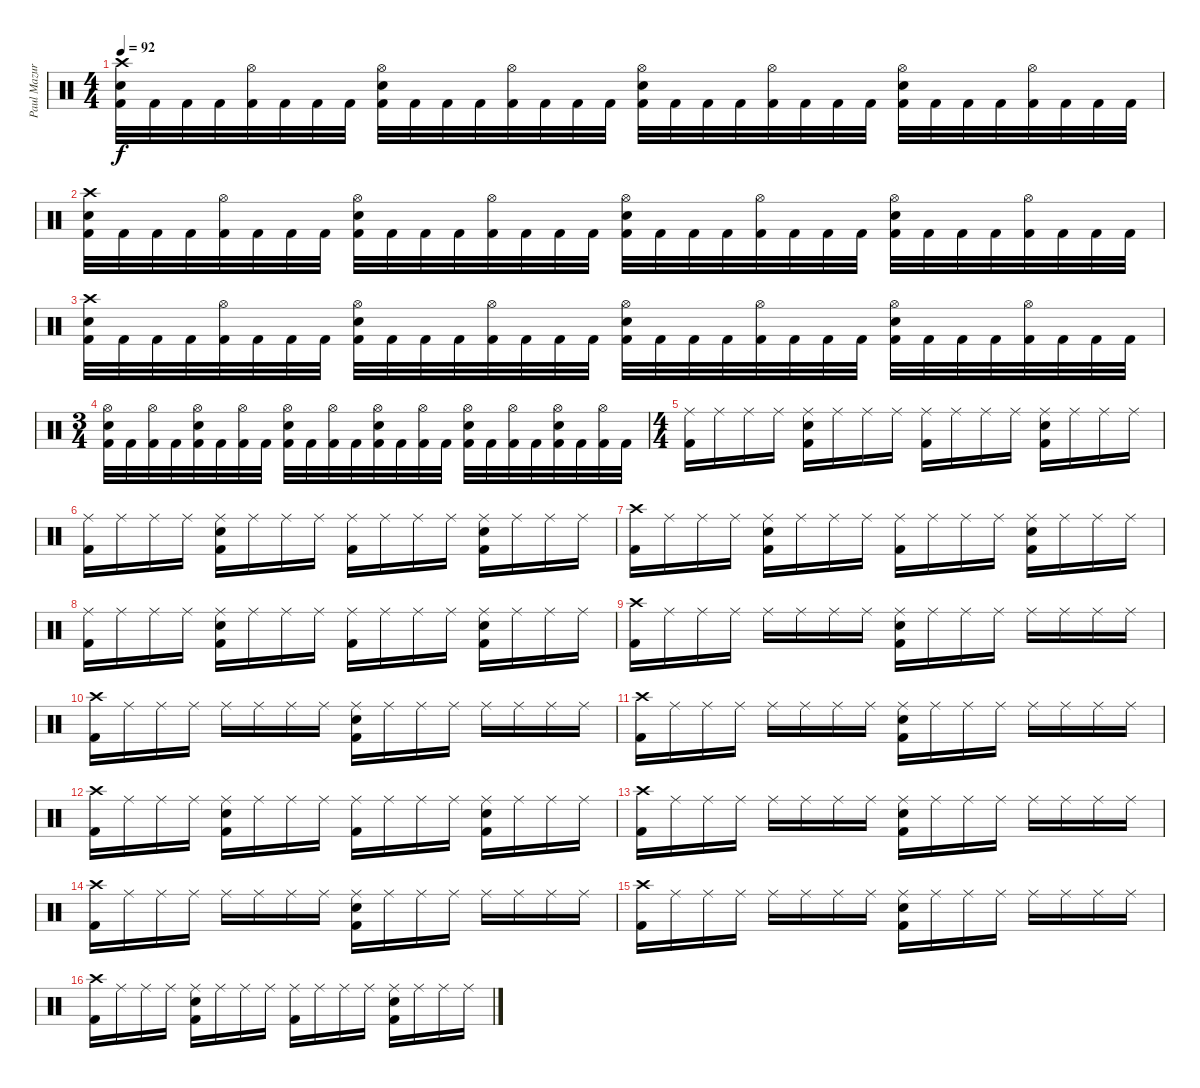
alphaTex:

\track ("Paul Mazurkiewicz" "Paul Mazur") {instrument percussion}
\staff {score}
\articulation defaults
\ts (4 4)
\tempo 92
\clef neutral
\ks c
("Crash high (hit)" "Electric Snare (hit)" "Kick (hit) 2").32{dy f} "Kick (hit) 2".32 "Kick (hit) 2".32 "Kick (hit) 2".32 ("Hi-Hat (open)" "Kick (hit) 2").32 "Kick (hit) 2".32 "Kick (hit) 2".32 "Kick (hit) 2".32 ("Hi-Hat (open)" "Electric Snare (hit)" "Kick (hit) 2").32 "Kick (hit) 2".32 "Kick (hit) 2".32 "Kick (hit) 2".32 ("Hi-Hat (open)" "Kick (hit) 2").32 "Kick (hit) 2".32 "Kick (hit) 2".32 "Kick (hit) 2".32 ("Hi-Hat (open)" "Electric Snare (hit)" "Kick (hit) 2").32 "Kick (hit) 2".32 "Kick (hit) 2".32 "Kick (hit) 2".32 ("Hi-Hat (open)" "Kick (hit) 2").32 "Kick (hit) 2".32 "Kick (hit) 2".32 "Kick (hit) 2".32 ("Hi-Hat (open)" "Electric Snare (hit)" "Kick (hit) 2").32 "Kick (hit) 2".32 "Kick (hit) 2".32 "Kick (hit) 2".32 ("Hi-Hat (open)" "Kick (hit) 2").32 "Kick (hit) 2".32 "Kick (hit) 2".32 "Kick (hit) 2".32 |
("Crash high (hit)" "Electric Snare (hit)" "Kick (hit) 2").32 "Kick (hit) 2".32 "Kick (hit) 2".32 "Kick (hit) 2".32 ("Hi-Hat (open)" "Kick (hit) 2").32 "Kick (hit) 2".32 "Kick (hit) 2".32 "Kick (hit) 2".32 ("Hi-Hat (open)" "Electric Snare (hit)" "Kick (hit) 2").32 "Kick (hit) 2".32 "Kick (hit) 2".32 "Kick (hit) 2".32 ("Hi-Hat (open)" "Kick (hit) 2").32 "Kick (hit) 2".32 "Kick (hit) 2".32 "Kick (hit) 2".32 ("Hi-Hat (open)" "Electric Snare (hit)" "Kick (hit) 2").32 "Kick (hit) 2".32 "Kick (hit) 2".32 "Kick (hit) 2".32 ("Hi-Hat (open)" "Kick (hit) 2").32 "Kick (hit) 2".32 "Kick (hit) 2".32 "Kick (hit) 2".32 ("Hi-Hat (open)" "Electric Snare (hit)" "Kick (hit) 2").32 "Kick (hit) 2".32 "Kick (hit) 2".32 "Kick (hit) 2".32 ("Hi-Hat (open)" "Kick (hit) 2").32 "Kick (hit) 2".32 "Kick (hit) 2".32 "Kick (hit) 2".32 |
("Crash high (hit)" "Electric Snare (hit)" "Kick (hit) 2").32 "Kick (hit) 2".32 "Kick (hit) 2".32 "Kick (hit) 2".32 ("Hi-Hat (open)" "Kick (hit) 2").32 "Kick (hit) 2".32 "Kick (hit) 2".32 "Kick (hit) 2".32 ("Hi-Hat (open)" "Electric Snare (hit)" "Kick (hit) 2").32 "Kick (hit) 2".32 "Kick (hit) 2".32 "Kick (hit) 2".32 ("Hi-Hat (open)" "Kick (hit) 2").32 "Kick (hit) 2".32 "Kick (hit) 2".32 "Kick (hit) 2".32 ("Hi-Hat (open)" "Electric Snare (hit)" "Kick (hit) 2").32 "Kick (hit) 2".32 "Kick (hit) 2".32 "Kick (hit) 2".32 ("Hi-Hat (open)" "Kick (hit) 2").32 "Kick (hit) 2".32 "Kick (hit) 2".32 "Kick (hit) 2".32 ("Hi-Hat (open)" "Electric Snare (hit)" "Kick (hit) 2").32 "Kick (hit) 2".32 "Kick (hit) 2".32 "Kick (hit) 2".32 ("Hi-Hat (open)" "Kick (hit) 2").32 "Kick (hit) 2".32 "Kick (hit) 2".32 "Kick (hit) 2".32 |
\ts (3 4)
("Hi-Hat (open)" "Electric Snare (hit)" "Kick (hit) 2").32 "Kick (hit) 2".32 ("Hi-Hat (open)" "Kick (hit) 2").32 "Kick (hit) 2".32 ("Hi-Hat (open)" "Electric Snare (hit)" "Kick (hit) 2").32 "Kick (hit) 2".32 ("Hi-Hat (open)" "Kick (hit) 2").32 "Kick (hit) 2".32 ("Hi-Hat (open)" "Electric Snare (hit)" "Kick (hit) 2").32 "Kick (hit) 2".32 ("Hi-Hat (open)" "Kick (hit) 2").32 "Kick (hit) 2".32 ("Hi-Hat (open)" "Electric Snare (hit)" "Kick (hit) 2").32 "Kick (hit) 2".32 ("Hi-Hat (open)" "Kick (hit) 2").32 "Kick (hit) 2".32 ("Hi-Hat (open)" "Electric Snare (hit)" "Kick (hit) 2").32 "Kick (hit) 2".32 ("Hi-Hat (open)" "Kick (hit) 2").32 "Kick (hit) 2".32 ("Hi-Hat (open)" "Electric Snare (hit)" "Kick (hit) 2").32 "Kick (hit) 2".32 ("Hi-Hat (open)" "Kick (hit) 2").32 "Kick (hit) 2".32 |
\ts (4 4)
("Ride (middle)" "Kick (hit) 2").16 "Ride (middle)".16 "Ride (middle)".16 "Ride (middle)".16 ("Ride (middle)" "Snare (hit) 2" "Kick (hit) 2").16 "Ride (middle)".16 "Ride (middle)".16 "Ride (middle)".16 ("Ride (middle)" "Kick (hit) 2").16 "Ride (middle)".16 "Ride (middle)".16 "Ride (middle)".16 ("Ride (middle)" "Snare (hit) 2" "Kick (hit) 2").16 "Ride (middle)".16 "Ride (middle)".16 "Ride (middle)".16 |
("Ride (middle)" "Kick (hit) 2").16 "Ride (middle)".16 "Ride (middle)".16 "Ride (middle)".16 ("Ride (middle)" "Snare (hit) 2" "Kick (hit) 2").16 "Ride (middle)".16 "Ride (middle)".16 "Ride (middle)".16 ("Ride (middle)" "Kick (hit) 2").16 "Ride (middle)".16 "Ride (middle)".16 "Ride (middle)".16 ("Ride (middle)" "Snare (hit) 2" "Kick (hit) 2").16 "Ride (middle)".16 "Ride (middle)".16 "Ride (middle)".16 |
("Crash high (hit)" "Kick (hit) 2").16 "Ride (middle)".16 "Ride (middle)".16 "Ride (middle)".16 ("Ride (middle)" "Snare (hit) 2" "Kick (hit) 2").16 "Ride (middle)".16 "Ride (middle)".16 "Ride (middle)".16 ("Ride (middle)" "Kick (hit) 2").16 "Ride (middle)".16 "Ride (middle)".16 "Ride (middle)".16 ("Ride (middle)" "Snare (hit) 2" "Kick (hit) 2").16 "Ride (middle)".16 "Ride (middle)".16 "Ride (middle)".16 |
("Ride (middle)" "Kick (hit) 2").16 "Ride (middle)".16 "Ride (middle)".16 "Ride (middle)".16 ("Ride (middle)" "Snare (hit) 2" "Kick (hit) 2").16 "Ride (middle)".16 "Ride (middle)".16 "Ride (middle)".16 ("Ride (middle)" "Kick (hit) 2").16 "Ride (middle)".16 "Ride (middle)".16 "Ride (middle)".16 ("Ride (middle)" "Snare (hit) 2" "Kick (hit) 2").16 "Ride (middle)".16 "Ride (middle)".16 "Ride (middle)".16 |
("Crash high (hit)" "Kick (hit) 2").16 "Ride (middle)".16 "Ride (middle)".16 "Ride (middle)".16 "Ride (middle)".16 "Ride (middle)".16 "Ride (middle)".16 "Ride (middle)".16 ("Ride (middle)" "Snare (hit) 2" "Kick (hit) 2").16 "Ride (middle)".16 "Ride (middle)".16 "Ride (middle)".16 "Ride (middle)".16 "Ride (middle)".16 "Ride (middle)".16 "Ride (middle)".16 |
("Crash high (hit)" "Kick (hit) 2").16 "Ride (middle)".16 "Ride (middle)".16 "Ride (middle)".16 "Ride (middle)".16 "Ride (middle)".16 "Ride (middle)".16 "Ride (middle)".16 ("Ride (middle)" "Snare (hit) 2" "Kick (hit) 2").16 "Ride (middle)".16 "Ride (middle)".16 "Ride (middle)".16 "Ride (middle)".16 "Ride (middle)".16 "Ride (middle)".16 "Ride (middle)".16 |
("Crash high (hit)" "Kick (hit) 2").16 "Ride (middle)".16 "Ride (middle)".16 "Ride (middle)".16 "Ride (middle)".16 "Ride (middle)".16 "Ride (middle)".16 "Ride (middle)".16 ("Ride (middle)" "Snare (hit) 2" "Kick (hit) 2").16 "Ride (middle)".16 "Ride (middle)".16 "Ride (middle)".16 "Ride (middle)".16 "Ride (middle)".16 "Ride (middle)".16 "Ride (middle)".16 |
("Crash high (hit)" "Kick (hit) 2").16 "Ride (middle)".16 "Ride (middle)".16 "Ride (middle)".16 ("Ride (middle)" "Snare (hit) 2" "Kick (hit) 2").16 "Ride (middle)".16 "Ride (middle)".16 "Ride (middle)".16 ("Ride (middle)" "Kick (hit) 2").16 "Ride (middle)".16 "Ride (middle)".16 "Ride (middle)".16 ("Ride (middle)" "Snare (hit) 2" "Kick (hit) 2").16 "Ride (middle)".16 "Ride (middle)".16 "Ride (middle)".16 |
("Crash high (hit)" "Kick (hit) 2").16 "Ride (middle)".16 "Ride (middle)".16 "Ride (middle)".16 "Ride (middle)".16 "Ride (middle)".16 "Ride (middle)".16 "Ride (middle)".16 ("Ride (middle)" "Snare (hit) 2" "Kick (hit) 2").16 "Ride (middle)".16 "Ride (middle)".16 "Ride (middle)".16 "Ride (middle)".16 "Ride (middle)".16 "Ride (middle)".16 "Ride (middle)".16 |
("Crash high (hit)" "Kick (hit) 2").16 "Ride (middle)".16 "Ride (middle)".16 "Ride (middle)".16 "Ride (middle)".16 "Ride (middle)".16 "Ride (middle)".16 "Ride (middle)".16 ("Ride (middle)" "Snare (hit) 2" "Kick (hit) 2").16 "Ride (middle)".16 "Ride (middle)".16 "Ride (middle)".16 "Ride (middle)".16 "Ride (middle)".16 "Ride (middle)".16 "Ride (middle)".16 |
("Crash high (hit)" "Kick (hit) 2").16 "Ride (middle)".16 "Ride (middle)".16 "Ride (middle)".16 "Ride (middle)".16 "Ride (middle)".16 "Ride (middle)".16 "Ride (middle)".16 ("Ride (middle)" "Snare (hit) 2" "Kick (hit) 2").16 "Ride (middle)".16 "Ride (middle)".16 "Ride (middle)".16 "Ride (middle)".16 "Ride (middle)".16 "Ride (middle)".16 "Ride (middle)".16 |
("Crash high (hit)" "Kick (hit) 2").16 "Ride (middle)".16 "Ride (middle)".16 "Ride (middle)".16 ("Ride (middle)" "Snare (hit) 2" "Kick (hit) 2").16 "Ride (middle)".16 "Ride (middle)".16 "Ride (middle)".16 ("Ride (middle)" "Kick (hit) 2").16 "Ride (middle)".16 "Ride (middle)".16 "Ride (middle)".16 ("Ride (middle)" "Snare (hit) 2" "Kick (hit) 2").16 "Ride (middle)".16 "Ride (middle)".16 "Ride (middle)".16
